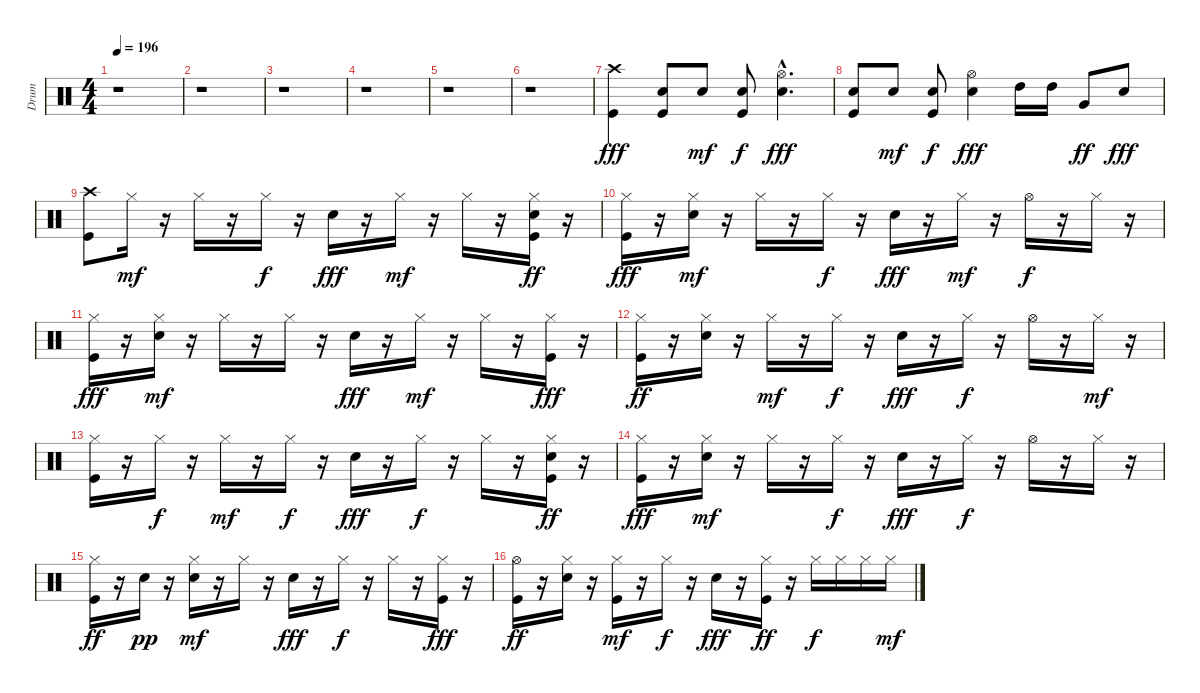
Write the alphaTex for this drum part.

\track ("Drum" "Drum") {instrument percussion}
\staff {score}
\articulation defaults
\ts (4 4)
\tempo 196
\clef neutral
\ks c
r.1{dy fff} |
r.1 |
r.1 |
r.1 |
r.1 |
r.1 |
("Crash high (hit)" "Kick (hit)").4 ("Kick (hit)" "Snare (hit) 2").8 "Snare (hit) 2".8{dy mf} ("Kick (hit)" "Snare (hit) 2").8{dy f} ("Hi-Hat (open)" "Snare (hit) 2"{hac}).4{d dy fff} |
("Kick (hit)" "Snare (hit) 2").8 "Snare (hit) 2".8{dy mf} ("Kick (hit)" "Snare (hit) 2").8{dy f} ("Hi-Hat (open)" "Snare (hit) 2").4{dy fff} "High Tom (hit)".16 "High Tom (hit)".16 "Very Low Tom (hit)".8{dy ff} "Snare (hit) 2".8{dy fff} |
("Crash high (hit)" "Kick (hit)").8 "Hi-Hat (closed)".16{dy mf} r.16 "Hi-Hat (closed)".16 r.16 "Hi-Hat (closed)".16{dy f} r.16 "Snare (hit) 2".16{dy fff} r.16 "Hi-Hat (closed)".16{dy mf} r.16 "Hi-Hat (closed)".16 r.16 ("Snare (hit) 2" "Hi-Hat (closed)" "Kick (hit)").16{dy ff} r.16 |
("Hi-Hat (closed)" "Kick (hit)").16{dy fff} r.16 ("Snare (hit) 2" "Hi-Hat (closed)").16{dy mf} r.16 "Hi-Hat (closed)".16 r.16 "Hi-Hat (closed)".16{dy f} r.16 "Snare (hit) 2".16{dy fff} r.16 "Hi-Hat (closed)".16{dy mf} r.16 "Hi-Hat (open)".16{dy f} r.16 "Hi-Hat (closed)".16 r.16 |
("Hi-Hat (closed)" "Kick (hit)").16{dy fff} r.16 ("Snare (hit) 2" "Hi-Hat (closed)").16{dy mf} r.16 "Hi-Hat (closed)".16 r.16 "Hi-Hat (closed)".16 r.16 "Snare (hit) 2".16{dy fff} r.16 "Hi-Hat (closed)".16{dy mf} r.16 "Hi-Hat (closed)".16 r.16 ("Hi-Hat (closed)" "Kick (hit)").16{dy fff} r.16 |
("Hi-Hat (closed)" "Kick (hit)").16{dy ff} r.16 ("Snare (hit) 2" "Hi-Hat (closed)").16 r.16 "Hi-Hat (closed)".16{dy mf} r.16 "Hi-Hat (closed)".16{dy f} r.16 "Snare (hit) 2".16{dy fff} r.16 "Hi-Hat (closed)".16{dy f} r.16 "Hi-Hat (open)".16 r.16 "Hi-Hat (closed)".16{dy mf} r.16 |
("Kick (hit)" "Hi-Hat (closed)").16 r.16 "Hi-Hat (closed)".16{dy f} r.16 "Hi-Hat (closed)".16{dy mf} r.16 "Hi-Hat (closed)".16{dy f} r.16 "Snare (hit) 2".16{dy fff} r.16 "Hi-Hat (closed)".16{dy f} r.16 "Hi-Hat (closed)".16 r.16 ("Snare (hit) 2" "Hi-Hat (closed)" "Kick (hit)").16{dy ff} r.16 |
("Hi-Hat (closed)" "Kick (hit)").16{dy fff} r.16 ("Snare (hit) 2" "Hi-Hat (closed)").16{dy mf} r.16 "Hi-Hat (closed)".16 r.16 "Hi-Hat (closed)".16{dy f} r.16 "Snare (hit) 2".16{dy fff} r.16 "Hi-Hat (closed)".16{dy f} r.16 "Hi-Hat (open)".16 r.16 "Hi-Hat (closed)".16 r.16 |
("Hi-Hat (closed)" "Kick (hit)").16{dy ff} r.16 "Snare (hit) 2".16{dy pp} r.16 ("Snare (hit) 2" "Hi-Hat (closed)").16{dy mf} r.16 "Hi-Hat (closed)".16 r.16 "Snare (hit) 2".16{dy fff} r.16 "Hi-Hat (closed)".16{dy f} r.16 "Hi-Hat (closed)".16 r.16 ("Hi-Hat (closed)" "Kick (hit)").16{dy fff} r.16 |
("Hi-Hat (open)" "Kick (hit)").16{dy ff} r.16 ("Snare (hit) 2" "Hi-Hat (closed)").16 r.16 ("Kick (hit)" "Hi-Hat (closed)").16{dy mf} r.16 "Hi-Hat (closed)".16{dy f} r.16 "Snare (hit) 2".16{dy fff} r.16 ("Hi-Hat (closed)" "Kick (hit)").16{dy ff} r.16 "Hi-Hat (closed)".16{dy f} "Hi-Hat (closed)".16 "Hi-Hat (closed)".16 "Hi-Hat (closed)".16{dy mf}
